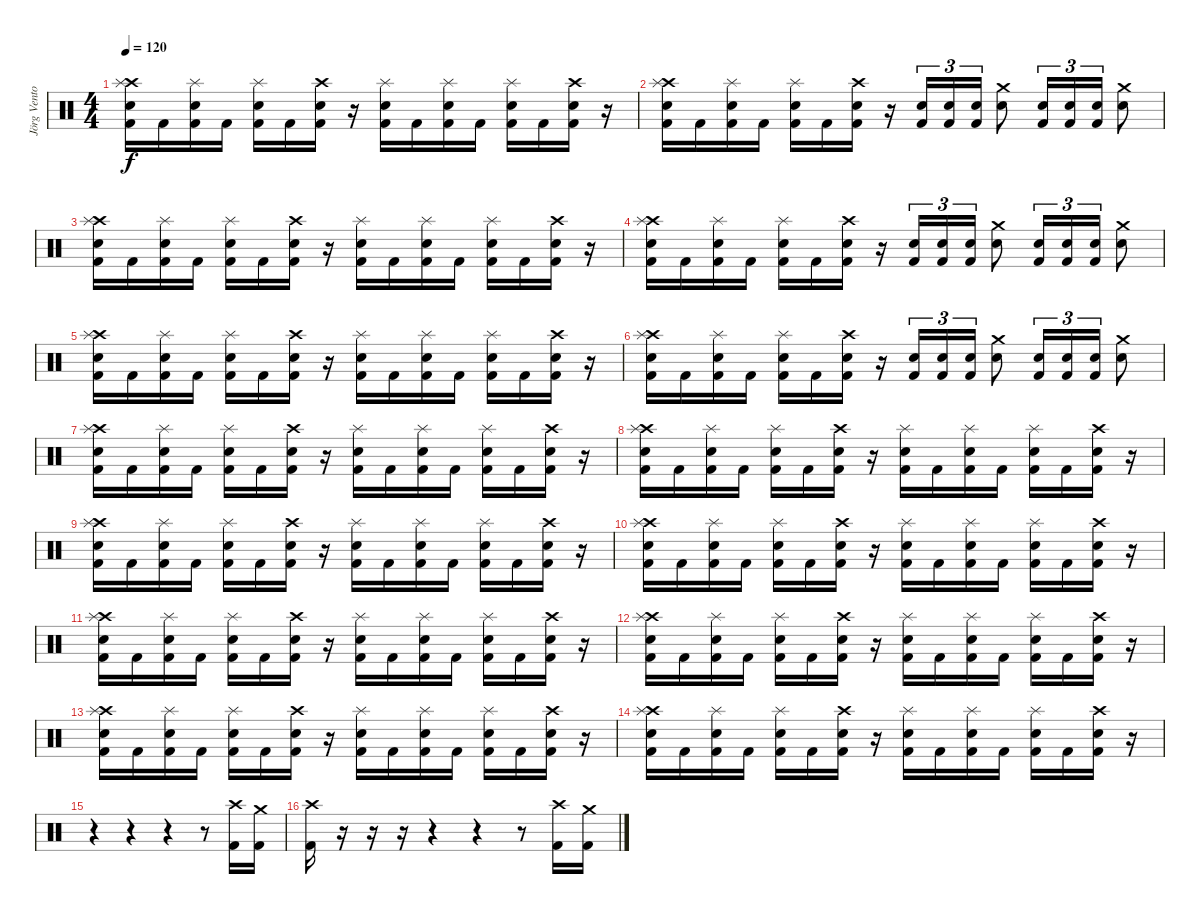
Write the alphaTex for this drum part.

\track ("Jörg Ventor" "Jörg Vento") {instrument percussion}
\staff {score}
\articulation defaults
\ts (4 4)
\tempo 120
\clef neutral
\ks c
("Crash high (hit)" "Kick (hit) 2" "Snare (hit) 2" "Splash (hit)").16{dy f} "Kick (hit) 2".16 ("Kick (hit) 2" "Snare (hit) 2" "Splash (hit)").16 "Kick (hit) 2".16 ("Kick (hit) 2" "Snare (hit) 2" "Splash (hit)").16 "Kick (hit) 2".16 ("Kick (hit) 2" "Snare (hit) 2" "Crash high (hit)").16 r.16 ("Kick (hit) 2" "Snare (hit) 2" "Splash (hit)").16 "Kick (hit) 2".16 ("Kick (hit) 2" "Snare (hit) 2" "Splash (hit)").16 "Kick (hit) 2".16 ("Kick (hit) 2" "Snare (hit) 2" "Splash (hit)").16 "Kick (hit) 2".16 ("Kick (hit) 2" "Snare (hit) 2" "Crash high (hit)").16 r.16 |
("Crash high (hit)" "Kick (hit) 2" "Snare (hit) 2" "Splash (hit)").16 "Kick (hit) 2".16 ("Kick (hit) 2" "Snare (hit) 2" "Splash (hit)").16 "Kick (hit) 2".16 ("Kick (hit) 2" "Snare (hit) 2" "Splash (hit)").16 "Kick (hit) 2".16 ("Kick (hit) 2" "Snare (hit) 2" "Crash high (hit)").16 r.16 ("Snare (hit) 2" "Kick (hit) 2").16{tu (3 2)} ("Snare (hit) 2" "Kick (hit) 2").16{tu (3 2)} ("Snare (hit) 2" "Kick (hit) 2").16{tu (3 2)} ("Snare (hit) 2" "Crash medium (hit)").8 ("Snare (hit) 2" "Kick (hit) 2").16{tu (3 2)} ("Snare (hit) 2" "Kick (hit) 2").16{tu (3 2)} ("Snare (hit) 2" "Kick (hit) 2").16{tu (3 2)} ("Electric Snare (hit)" "Crash medium (hit)").8 |
("Crash high (hit)" "Kick (hit) 2" "Snare (hit) 2" "Splash (hit)").16 "Kick (hit) 2".16 ("Kick (hit) 2" "Snare (hit) 2" "Splash (hit)").16 "Kick (hit) 2".16 ("Kick (hit) 2" "Snare (hit) 2" "Splash (hit)").16 "Kick (hit) 2".16 ("Kick (hit) 2" "Snare (hit) 2" "Crash high (hit)").16 r.16 ("Kick (hit) 2" "Snare (hit) 2" "Splash (hit)").16 "Kick (hit) 2".16 ("Kick (hit) 2" "Snare (hit) 2" "Splash (hit)").16 "Kick (hit) 2".16 ("Kick (hit) 2" "Snare (hit) 2" "Splash (hit)").16 "Kick (hit) 2".16 ("Kick (hit) 2" "Snare (hit) 2" "Crash high (hit)").16 r.16 |
("Crash high (hit)" "Kick (hit) 2" "Snare (hit) 2" "Splash (hit)").16 "Kick (hit) 2".16 ("Kick (hit) 2" "Snare (hit) 2" "Splash (hit)").16 "Kick (hit) 2".16 ("Kick (hit) 2" "Snare (hit) 2" "Splash (hit)").16 "Kick (hit) 2".16 ("Kick (hit) 2" "Snare (hit) 2" "Crash high (hit)").16 r.16 ("Snare (hit) 2" "Kick (hit) 2").16{tu (3 2)} ("Snare (hit) 2" "Kick (hit) 2").16{tu (3 2)} ("Snare (hit) 2" "Kick (hit) 2").16{tu (3 2)} ("Snare (hit) 2" "Crash medium (hit)").8 ("Snare (hit) 2" "Kick (hit) 2").16{tu (3 2)} ("Snare (hit) 2" "Kick (hit) 2").16{tu (3 2)} ("Snare (hit) 2" "Kick (hit) 2").16{tu (3 2)} ("Electric Snare (hit)" "Crash medium (hit)").8 |
("Crash high (hit)" "Kick (hit) 2" "Snare (hit) 2" "Splash (hit)").16 "Kick (hit) 2".16 ("Kick (hit) 2" "Snare (hit) 2" "Splash (hit)").16 "Kick (hit) 2".16 ("Kick (hit) 2" "Snare (hit) 2" "Splash (hit)").16 "Kick (hit) 2".16 ("Kick (hit) 2" "Snare (hit) 2" "Crash high (hit)").16 r.16 ("Kick (hit) 2" "Snare (hit) 2" "Splash (hit)").16 "Kick (hit) 2".16 ("Kick (hit) 2" "Snare (hit) 2" "Splash (hit)").16 "Kick (hit) 2".16 ("Kick (hit) 2" "Snare (hit) 2" "Splash (hit)").16 "Kick (hit) 2".16 ("Kick (hit) 2" "Snare (hit) 2" "Crash high (hit)").16 r.16 |
("Crash high (hit)" "Kick (hit) 2" "Snare (hit) 2" "Splash (hit)").16 "Kick (hit) 2".16 ("Kick (hit) 2" "Snare (hit) 2" "Splash (hit)").16 "Kick (hit) 2".16 ("Kick (hit) 2" "Snare (hit) 2" "Splash (hit)").16 "Kick (hit) 2".16 ("Kick (hit) 2" "Snare (hit) 2" "Crash high (hit)").16 r.16 ("Snare (hit) 2" "Kick (hit) 2").16{tu (3 2)} ("Snare (hit) 2" "Kick (hit) 2").16{tu (3 2)} ("Snare (hit) 2" "Kick (hit) 2").16{tu (3 2)} ("Snare (hit) 2" "Crash medium (hit)").8 ("Snare (hit) 2" "Kick (hit) 2").16{tu (3 2)} ("Snare (hit) 2" "Kick (hit) 2").16{tu (3 2)} ("Snare (hit) 2" "Kick (hit) 2").16{tu (3 2)} ("Electric Snare (hit)" "Crash medium (hit)").8 |
("Crash high (hit)" "Kick (hit) 2" "Snare (hit) 2" "Splash (hit)").16 "Kick (hit) 2".16 ("Kick (hit) 2" "Snare (hit) 2" "Splash (hit)").16 "Kick (hit) 2".16 ("Kick (hit) 2" "Snare (hit) 2" "Splash (hit)").16 "Kick (hit) 2".16 ("Kick (hit) 2" "Snare (hit) 2" "Crash high (hit)").16 r.16 ("Kick (hit) 2" "Snare (hit) 2" "Splash (hit)").16 "Kick (hit) 2".16 ("Kick (hit) 2" "Snare (hit) 2" "Splash (hit)").16 "Kick (hit) 2".16 ("Kick (hit) 2" "Snare (hit) 2" "Splash (hit)").16 "Kick (hit) 2".16 ("Kick (hit) 2" "Snare (hit) 2" "Crash high (hit)").16 r.16 |
("Crash high (hit)" "Kick (hit) 2" "Snare (hit) 2" "Splash (hit)").16 "Kick (hit) 2".16 ("Kick (hit) 2" "Snare (hit) 2" "Splash (hit)").16 "Kick (hit) 2".16 ("Kick (hit) 2" "Snare (hit) 2" "Splash (hit)").16 "Kick (hit) 2".16 ("Kick (hit) 2" "Snare (hit) 2" "Crash high (hit)").16 r.16 ("Kick (hit) 2" "Snare (hit) 2" "Splash (hit)").16 "Kick (hit) 2".16 ("Kick (hit) 2" "Snare (hit) 2" "Splash (hit)").16 "Kick (hit) 2".16 ("Kick (hit) 2" "Snare (hit) 2" "Splash (hit)").16 "Kick (hit) 2".16 ("Kick (hit) 2" "Snare (hit) 2" "Crash high (hit)").16 r.16 |
("Crash high (hit)" "Kick (hit) 2" "Snare (hit) 2" "Splash (hit)").16 "Kick (hit) 2".16 ("Kick (hit) 2" "Snare (hit) 2" "Splash (hit)").16 "Kick (hit) 2".16 ("Kick (hit) 2" "Snare (hit) 2" "Splash (hit)").16 "Kick (hit) 2".16 ("Kick (hit) 2" "Snare (hit) 2" "Crash high (hit)").16 r.16 ("Kick (hit) 2" "Snare (hit) 2" "Splash (hit)").16 "Kick (hit) 2".16 ("Kick (hit) 2" "Snare (hit) 2" "Splash (hit)").16 "Kick (hit) 2".16 ("Kick (hit) 2" "Snare (hit) 2" "Splash (hit)").16 "Kick (hit) 2".16 ("Kick (hit) 2" "Snare (hit) 2" "Crash high (hit)").16 r.16 |
("Crash high (hit)" "Kick (hit) 2" "Snare (hit) 2" "Splash (hit)").16 "Kick (hit) 2".16 ("Kick (hit) 2" "Snare (hit) 2" "Splash (hit)").16 "Kick (hit) 2".16 ("Kick (hit) 2" "Snare (hit) 2" "Splash (hit)").16 "Kick (hit) 2".16 ("Kick (hit) 2" "Snare (hit) 2" "Crash high (hit)").16 r.16 ("Kick (hit) 2" "Snare (hit) 2" "Splash (hit)").16 "Kick (hit) 2".16 ("Kick (hit) 2" "Snare (hit) 2" "Splash (hit)").16 "Kick (hit) 2".16 ("Kick (hit) 2" "Snare (hit) 2" "Splash (hit)").16 "Kick (hit) 2".16 ("Kick (hit) 2" "Snare (hit) 2" "Crash high (hit)").16 r.16 |
("Crash high (hit)" "Kick (hit) 2" "Snare (hit) 2" "Splash (hit)").16 "Kick (hit) 2".16 ("Kick (hit) 2" "Snare (hit) 2" "Splash (hit)").16 "Kick (hit) 2".16 ("Kick (hit) 2" "Snare (hit) 2" "Splash (hit)").16 "Kick (hit) 2".16 ("Kick (hit) 2" "Snare (hit) 2" "Crash high (hit)").16 r.16 ("Kick (hit) 2" "Snare (hit) 2" "Splash (hit)").16 "Kick (hit) 2".16 ("Kick (hit) 2" "Snare (hit) 2" "Splash (hit)").16 "Kick (hit) 2".16 ("Kick (hit) 2" "Snare (hit) 2" "Splash (hit)").16 "Kick (hit) 2".16 ("Kick (hit) 2" "Snare (hit) 2" "Crash high (hit)").16 r.16 |
("Crash high (hit)" "Kick (hit) 2" "Snare (hit) 2" "Splash (hit)").16 "Kick (hit) 2".16 ("Kick (hit) 2" "Snare (hit) 2" "Splash (hit)").16 "Kick (hit) 2".16 ("Kick (hit) 2" "Snare (hit) 2" "Splash (hit)").16 "Kick (hit) 2".16 ("Kick (hit) 2" "Snare (hit) 2" "Crash high (hit)").16 r.16 ("Kick (hit) 2" "Snare (hit) 2" "Splash (hit)").16 "Kick (hit) 2".16 ("Kick (hit) 2" "Snare (hit) 2" "Splash (hit)").16 "Kick (hit) 2".16 ("Kick (hit) 2" "Snare (hit) 2" "Splash (hit)").16 "Kick (hit) 2".16 ("Kick (hit) 2" "Snare (hit) 2" "Crash high (hit)").16 r.16 |
("Crash high (hit)" "Kick (hit) 2" "Snare (hit) 2" "Splash (hit)").16 "Kick (hit) 2".16 ("Kick (hit) 2" "Snare (hit) 2" "Splash (hit)").16 "Kick (hit) 2".16 ("Kick (hit) 2" "Snare (hit) 2" "Splash (hit)").16 "Kick (hit) 2".16 ("Kick (hit) 2" "Snare (hit) 2" "Crash high (hit)").16 r.16 ("Kick (hit) 2" "Snare (hit) 2" "Splash (hit)").16 "Kick (hit) 2".16 ("Kick (hit) 2" "Snare (hit) 2" "Splash (hit)").16 "Kick (hit) 2".16 ("Kick (hit) 2" "Snare (hit) 2" "Splash (hit)").16 "Kick (hit) 2".16 ("Kick (hit) 2" "Snare (hit) 2" "Crash high (hit)").16 r.16 |
("Crash high (hit)" "Kick (hit) 2" "Snare (hit) 2" "Splash (hit)").16 "Kick (hit) 2".16 ("Kick (hit) 2" "Snare (hit) 2" "Splash (hit)").16 "Kick (hit) 2".16 ("Kick (hit) 2" "Snare (hit) 2" "Splash (hit)").16 "Kick (hit) 2".16 ("Kick (hit) 2" "Snare (hit) 2" "Crash high (hit)").16 r.16 ("Kick (hit) 2" "Snare (hit) 2" "Splash (hit)").16 "Kick (hit) 2".16 ("Kick (hit) 2" "Snare (hit) 2" "Splash (hit)").16 "Kick (hit) 2".16 ("Kick (hit) 2" "Snare (hit) 2" "Splash (hit)").16 "Kick (hit) 2".16 ("Kick (hit) 2" "Snare (hit) 2" "Crash high (hit)").16 r.16 |
r.4 r.4 r.4 r.8 ("Kick (hit) 2" "Crash high (hit)").16 ("Kick (hit) 2" "Crash medium (hit)").16 |
("Kick (hit) 2" "Crash high (hit)").16 r.16 r.16 r.16 r.4 r.4 r.8 ("Kick (hit) 2" "Crash high (hit)").16 ("Kick (hit) 2" "Crash medium (hit)").16
